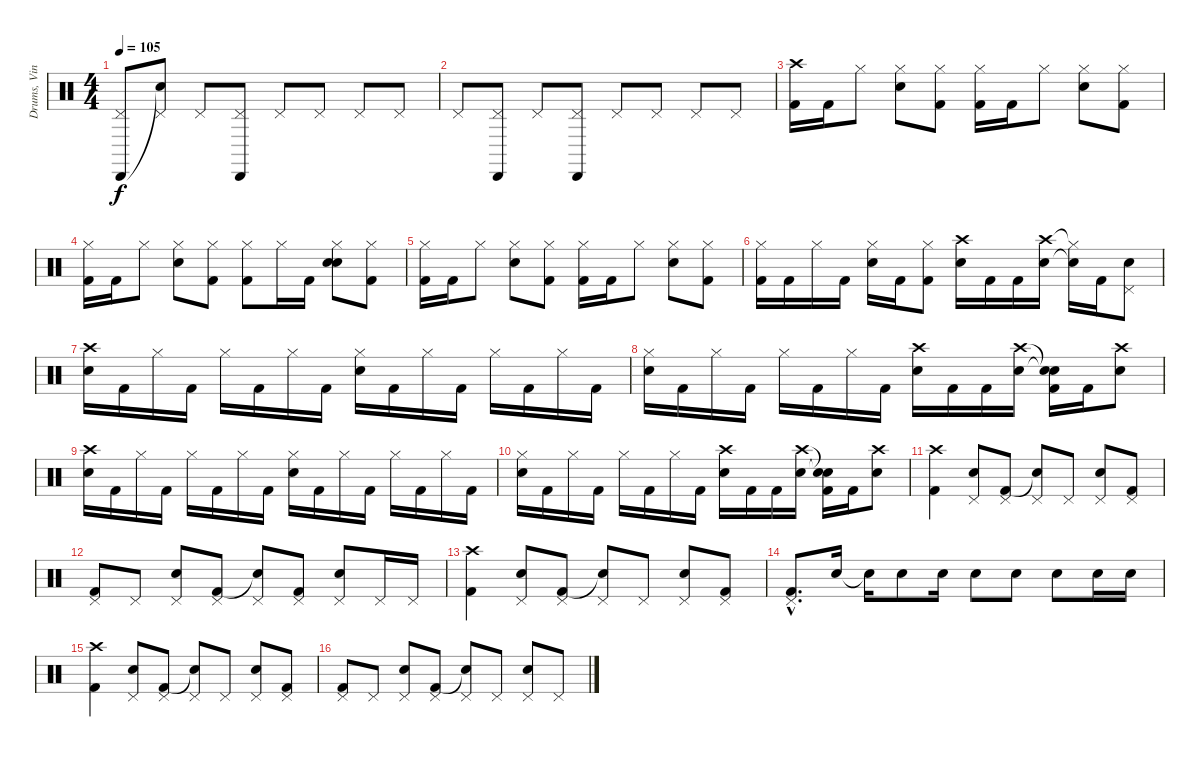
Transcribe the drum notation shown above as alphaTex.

\track ("Drums, Vinnie" "Drums, Vin") {instrument percussion}
\staff {score}
\articulation defaults
\ts (4 4)
\tempo 105
\clef neutral
\ks c
("Pedal Hi-Hat (hit)" "Cabasa (hit)").8{dy f} ("Pedal Hi-Hat (hit)" "Snare (hit)"{t}).8 "Pedal Hi-Hat (hit)".8 ("Pedal Hi-Hat (hit)" "Cabasa (hit)").8 "Pedal Hi-Hat (hit)".8 "Pedal Hi-Hat (hit)".8 "Pedal Hi-Hat (hit)".8 "Pedal Hi-Hat (hit)".8 |
"Pedal Hi-Hat (hit)".8 ("Pedal Hi-Hat (hit)" "Cabasa (hit)").8 "Pedal Hi-Hat (hit)".8 ("Pedal Hi-Hat (hit)" "Cabasa (hit)").8 "Pedal Hi-Hat (hit)".8 "Pedal Hi-Hat (hit)".8 "Pedal Hi-Hat (hit)".8 "Pedal Hi-Hat (hit)".8 |
("Crash high (hit)" "Kick (hit) 2").16 "Kick (hit) 2".16 "Hi-Hat (closed)".8 ("Hi-Hat (closed)" "Electric Snare (hit)").8 ("Hi-Hat (closed)" "Kick (hit) 2").8 ("Hi-Hat (closed)" "Kick (hit) 2").16 "Kick (hit) 2".16 "Hi-Hat (closed)".8 ("Hi-Hat (closed)" "Electric Snare (hit)").8 ("Hi-Hat (closed)" "Kick (hit) 2").8 |
("Hi-Hat (closed)" "Kick (hit) 2").16 "Kick (hit) 2".16 "Hi-Hat (closed)".8 ("Hi-Hat (closed)" "Electric Snare (hit)").8 ("Hi-Hat (closed)" "Kick (hit) 2").8 ("Hi-Hat (closed)" "Kick (hit) 2").8 "Hi-Hat (closed)".16 "Kick (hit) 2".16 ("Hi-Hat (closed)" "Electric Snare (hit)" "Snare (hit)").8 ("Hi-Hat (closed)" "Kick (hit) 2").8 |
("Hi-Hat (closed)" "Kick (hit) 2").16 "Kick (hit) 2".16 "Hi-Hat (closed)".8 ("Hi-Hat (closed)" "Electric Snare (hit)").8 ("Hi-Hat (closed)" "Kick (hit) 2").8 ("Hi-Hat (closed)" "Kick (hit) 2").16 "Kick (hit) 2".16 "Hi-Hat (closed)".8 ("Hi-Hat (closed)" "Electric Snare (hit)").8 ("Hi-Hat (closed)" "Kick (hit) 2").8 |
("Hi-Hat (closed)" "Kick (hit) 2").16 "Kick (hit) 2".16 "Hi-Hat (closed)".16 "Kick (hit) 2".16 ("Hi-Hat (closed)" "Electric Snare (hit)").16 "Kick (hit) 2".16 ("Hi-Hat (closed)" "Kick (hit) 2").8 ("Crash high (hit)" "Electric Snare (hit)").16 "Kick (hit) 2".16 "Kick (hit) 2".16 ("Crash high (hit)" "Electric Snare (hit)").16 ("Hi-Hat (closed)"{t} "Snare (hit)"{t}).16 "Kick (hit) 2".16 ("Pedal Hi-Hat (hit)" "Electric Snare (hit)").8 |
("Crash high (hit)" "Electric Snare (hit)").16 "Kick (hit) 2".16 "Hi-Hat (closed)".16 "Kick (hit) 2".16 "Hi-Hat (closed)".16 "Kick (hit) 2".16 "Hi-Hat (closed)".16 "Kick (hit) 2".16 ("Hi-Hat (closed)" "Electric Snare (hit)").16 "Kick (hit) 2".16 "Hi-Hat (closed)".16 "Kick (hit) 2".16 "Hi-Hat (closed)".16 "Kick (hit) 2".16 "Hi-Hat (closed)".16 "Kick (hit) 2".16 |
("Hi-Hat (closed)" "Electric Snare (hit)").16 "Kick (hit) 2".16 "Hi-Hat (closed)".16 "Kick (hit) 2".16 "Hi-Hat (closed)".16 "Kick (hit) 2".16 "Hi-Hat (closed)".16 "Kick (hit) 2".16 ("Crash high (hit)" "Electric Snare (hit)").16 "Kick (hit) 2".16 "Kick (hit) 2".16 ("Crash high (hit)" "Electric Snare (hit)").16 ("Snare (hit)"{t} "Snare (hit)"{t} "Kick (hit) 2").16 "Kick (hit) 2".16 ("Crash high (hit)" "Electric Snare (hit)").8 |
("Crash high (hit)" "Electric Snare (hit)").16 "Kick (hit) 2".16 "Hi-Hat (closed)".16 "Kick (hit) 2".16 "Hi-Hat (closed)".16 "Kick (hit) 2".16 "Hi-Hat (closed)".16 "Kick (hit) 2".16 ("Hi-Hat (closed)" "Electric Snare (hit)").16 "Kick (hit) 2".16 "Hi-Hat (closed)".16 "Kick (hit) 2".16 "Hi-Hat (closed)".16 "Kick (hit) 2".16 "Hi-Hat (closed)".16 "Kick (hit) 2".16 |
("Hi-Hat (closed)" "Electric Snare (hit)").16 "Kick (hit) 2".16 "Hi-Hat (closed)".16 "Kick (hit) 2".16 "Hi-Hat (closed)".16 "Kick (hit) 2".16 "Hi-Hat (closed)".16 "Kick (hit) 2".16 ("Crash high (hit)" "Electric Snare (hit)").16 "Kick (hit) 2".16 "Kick (hit) 2".16 ("Crash high (hit)" "Electric Snare (hit)").16 ("Snare (hit)"{t} "Snare (hit)"{t} "Kick (hit) 2").16 "Kick (hit) 2".16 ("Crash high (hit)" "Electric Snare (hit)").8 |
("Crash high (hit)" "Kick (hit) 2").4 ("Pedal Hi-Hat (hit)" "Electric Snare (hit)").8 ("Pedal Hi-Hat (hit)" "Kick (hit) 2").8 ("Pedal Hi-Hat (hit)" "Snare (hit)"{t}).8 "Pedal Hi-Hat (hit)".8 ("Pedal Hi-Hat (hit)" "Electric Snare (hit)").8 ("Pedal Hi-Hat (hit)" "Kick (hit) 2").8 |
("Pedal Hi-Hat (hit)" "Kick (hit) 2").8 "Pedal Hi-Hat (hit)".8 ("Pedal Hi-Hat (hit)" "Electric Snare (hit)").8 ("Pedal Hi-Hat (hit)" "Kick (hit) 2").8 ("Pedal Hi-Hat (hit)" "Snare (hit)"{t}).8 ("Pedal Hi-Hat (hit)" "Kick (hit) 2").8 ("Pedal Hi-Hat (hit)" "Electric Snare (hit)").8 "Pedal Hi-Hat (hit)".16 "Pedal Hi-Hat (hit)".16 |
("Crash high (hit)" "Kick (hit) 2").4 ("Pedal Hi-Hat (hit)" "Electric Snare (hit)").8 ("Pedal Hi-Hat (hit)" "Kick (hit) 2").8 ("Pedal Hi-Hat (hit)" "Snare (hit)"{t}).8 "Pedal Hi-Hat (hit)".8 ("Pedal Hi-Hat (hit)" "Electric Snare (hit)").8 ("Pedal Hi-Hat (hit)" "Kick (hit) 2").8 |
("Pedal Hi-Hat (hit)"{hac} "Kick (hit) 2"{hac}).8{d} "Electric Snare (hit)".16 "Snare (hit)"{t}.16 "Electric Snare (hit)".8 "Electric Snare (hit)".16 "Electric Snare (hit)".8 "Electric Snare (hit)".8 "Electric Snare (hit)".8 "Electric Snare (hit)".16 "Electric Snare (hit)".16 |
("Crash high (hit)" "Kick (hit) 2").4 ("Pedal Hi-Hat (hit)" "Electric Snare (hit)").8 ("Pedal Hi-Hat (hit)" "Kick (hit) 2").8 ("Pedal Hi-Hat (hit)" "Snare (hit)"{t}).8 "Pedal Hi-Hat (hit)".8 ("Pedal Hi-Hat (hit)" "Electric Snare (hit)").8 ("Pedal Hi-Hat (hit)" "Kick (hit) 2").8 |
("Pedal Hi-Hat (hit)" "Kick (hit) 2").8 "Pedal Hi-Hat (hit)".8 ("Pedal Hi-Hat (hit)" "Electric Snare (hit)").8 ("Pedal Hi-Hat (hit)" "Kick (hit) 2").8 ("Pedal Hi-Hat (hit)" "Snare (hit)"{t}).8 "Pedal Hi-Hat (hit)".8 ("Pedal Hi-Hat (hit)" "Electric Snare (hit)").8 "Pedal Hi-Hat (hit)".8
